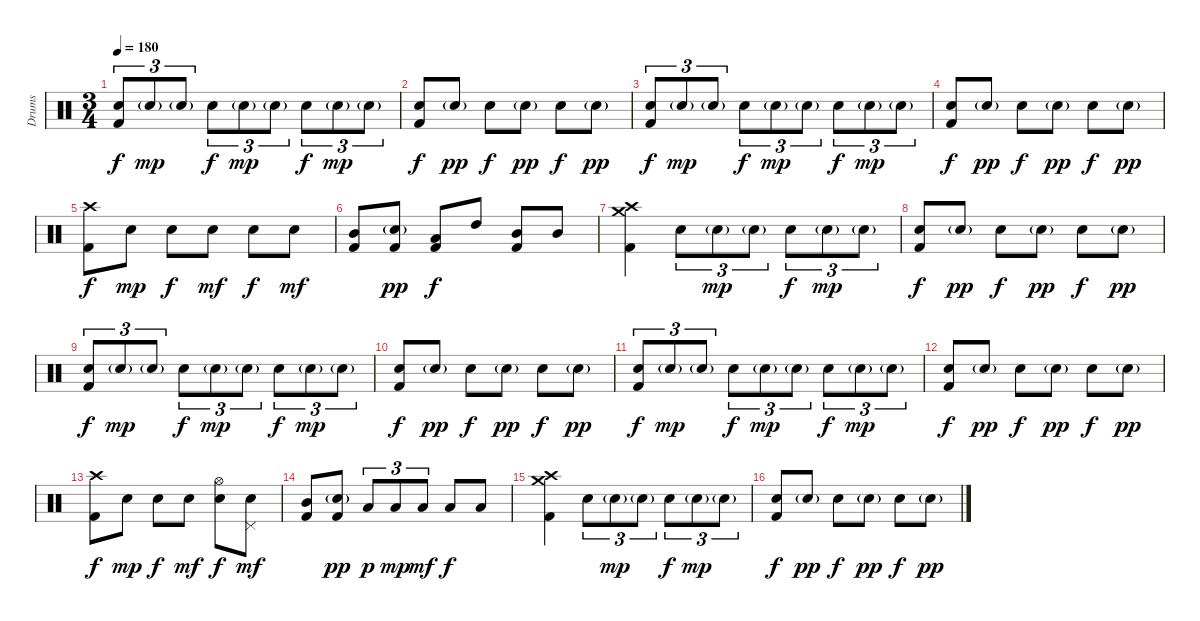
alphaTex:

\track ("Drums" "Drums") {instrument percussion}
\staff {score}
\articulation defaults
\ts (3 4)
\tempo 180
\clef neutral
\ks c
("Electric Snare (hit)" "Kick (hit) 2").8{tu (3 2) dy f} "Electric Snare (hit)"{g}.8{tu (3 2) dy mp} "Electric Snare (hit)"{g}.8{tu (3 2)} "Electric Snare (hit)".8{tu (3 2) dy f} "Electric Snare (hit)"{g}.8{tu (3 2) dy mp} "Electric Snare (hit)"{g}.8{tu (3 2)} "Electric Snare (hit)".8{tu (3 2) dy f} "Electric Snare (hit)"{g}.8{tu (3 2) dy mp} "Electric Snare (hit)"{g}.8{tu (3 2)} |
("Electric Snare (hit)" "Kick (hit) 2").8{dy f} "Electric Snare (hit)"{g}.8{dy pp} "Electric Snare (hit)".8{dy f} "Electric Snare (hit)"{g}.8{dy pp} "Electric Snare (hit)".8{dy f} "Electric Snare (hit)"{g}.8{dy pp} |
("Electric Snare (hit)" "Kick (hit) 2").8{tu (3 2) dy f} "Electric Snare (hit)"{g}.8{tu (3 2) dy mp} "Electric Snare (hit)"{g}.8{tu (3 2)} "Electric Snare (hit)".8{tu (3 2) dy f} "Electric Snare (hit)"{g}.8{tu (3 2) dy mp} "Electric Snare (hit)"{g}.8{tu (3 2)} "Electric Snare (hit)".8{tu (3 2) dy f} "Electric Snare (hit)"{g}.8{tu (3 2) dy mp} "Electric Snare (hit)"{g}.8{tu (3 2)} |
("Electric Snare (hit)" "Kick (hit) 2").8{dy f} "Electric Snare (hit)"{g}.8{dy pp} "Electric Snare (hit)".8{dy f} "Electric Snare (hit)"{g}.8{dy pp} "Electric Snare (hit)".8{dy f} "Electric Snare (hit)"{g}.8{dy pp} |
("Crash high (hit)" "Kick (hit) 2").8{dy f} "Electric Snare (hit)".8{dy mp} "Electric Snare (hit)".8{dy f} "Electric Snare (hit)".8{dy mf} "Electric Snare (hit)".8{dy f} "Electric Snare (hit)".8{dy mf} |
("Mid Tom (hit)" "Kick (hit) 2").8 ("Electric Snare (hit)"{g} "Kick (hit) 2").8{dy pp} ("Low Tom (hit)" "Kick (hit) 2").8{dy f} "High Tom (hit)".8 ("Mid Tom (hit)" "Kick (hit) 2").8 "Mid Tom (hit)".8 |
("Crash high (hit)" "Crash medium (hit)" "Kick (hit) 2").4 "Electric Snare (hit)".8{tu (3 2)} "Electric Snare (hit)"{g}.8{tu (3 2) dy mp} "Electric Snare (hit)"{g}.8{tu (3 2)} "Electric Snare (hit)".8{tu (3 2) dy f} "Electric Snare (hit)"{g}.8{tu (3 2) dy mp} "Electric Snare (hit)"{g}.8{tu (3 2)} |
("Electric Snare (hit)" "Kick (hit) 2").8{dy f} "Electric Snare (hit)"{g}.8{dy pp} "Electric Snare (hit)".8{dy f} "Electric Snare (hit)"{g}.8{dy pp} "Electric Snare (hit)".8{dy f} "Electric Snare (hit)"{g}.8{dy pp} |
("Electric Snare (hit)" "Kick (hit) 2").8{tu (3 2) dy f} "Electric Snare (hit)"{g}.8{tu (3 2) dy mp} "Electric Snare (hit)"{g}.8{tu (3 2)} "Electric Snare (hit)".8{tu (3 2) dy f} "Electric Snare (hit)"{g}.8{tu (3 2) dy mp} "Electric Snare (hit)"{g}.8{tu (3 2)} "Electric Snare (hit)".8{tu (3 2) dy f} "Electric Snare (hit)"{g}.8{tu (3 2) dy mp} "Electric Snare (hit)"{g}.8{tu (3 2)} |
("Electric Snare (hit)" "Kick (hit) 2").8{dy f} "Electric Snare (hit)"{g}.8{dy pp} "Electric Snare (hit)".8{dy f} "Electric Snare (hit)"{g}.8{dy pp} "Electric Snare (hit)".8{dy f} "Electric Snare (hit)"{g}.8{dy pp} |
("Electric Snare (hit)" "Kick (hit) 2").8{tu (3 2) dy f} "Electric Snare (hit)"{g}.8{tu (3 2) dy mp} "Electric Snare (hit)"{g}.8{tu (3 2)} "Electric Snare (hit)".8{tu (3 2) dy f} "Electric Snare (hit)"{g}.8{tu (3 2) dy mp} "Electric Snare (hit)"{g}.8{tu (3 2)} "Electric Snare (hit)".8{tu (3 2) dy f} "Electric Snare (hit)"{g}.8{tu (3 2) dy mp} "Electric Snare (hit)"{g}.8{tu (3 2)} |
("Electric Snare (hit)" "Kick (hit) 2").8{dy f} "Electric Snare (hit)"{g}.8{dy pp} "Electric Snare (hit)".8{dy f} "Electric Snare (hit)"{g}.8{dy pp} "Electric Snare (hit)".8{dy f} "Electric Snare (hit)"{g}.8{dy pp} |
("Crash high (hit)" "Kick (hit) 2").8{dy f} "Electric Snare (hit)".8{dy mp} "Electric Snare (hit)".8{dy f} "Electric Snare (hit)".8{dy mf} ("Hi-Hat (open)" "Electric Snare (hit)").8{dy f} ("Pedal Hi-Hat (hit)" "Electric Snare (hit)").8{dy mf} |
("Mid Tom (hit)" "Kick (hit) 2").8 ("Electric Snare (hit)"{g} "Kick (hit) 2").8{dy pp} "Low Tom (hit)".8{tu (3 2) dy p} "Low Tom (hit)".8{tu (3 2) dy mp} "Low Tom (hit)".8{tu (3 2) dy mf} "Low Tom (hit)".8{dy f} "Low Tom (hit)".8 |
("Crash high (hit)" "Crash medium (hit)" "Kick (hit) 2").4 "Electric Snare (hit)".8{tu (3 2)} "Electric Snare (hit)"{g}.8{tu (3 2) dy mp} "Electric Snare (hit)"{g}.8{tu (3 2)} "Electric Snare (hit)".8{tu (3 2) dy f} "Electric Snare (hit)"{g}.8{tu (3 2) dy mp} "Electric Snare (hit)"{g}.8{tu (3 2)} |
("Electric Snare (hit)" "Kick (hit) 2").8{dy f} "Electric Snare (hit)"{g}.8{dy pp} "Electric Snare (hit)".8{dy f} "Electric Snare (hit)"{g}.8{dy pp} "Electric Snare (hit)".8{dy f} "Electric Snare (hit)"{g}.8{dy pp}
